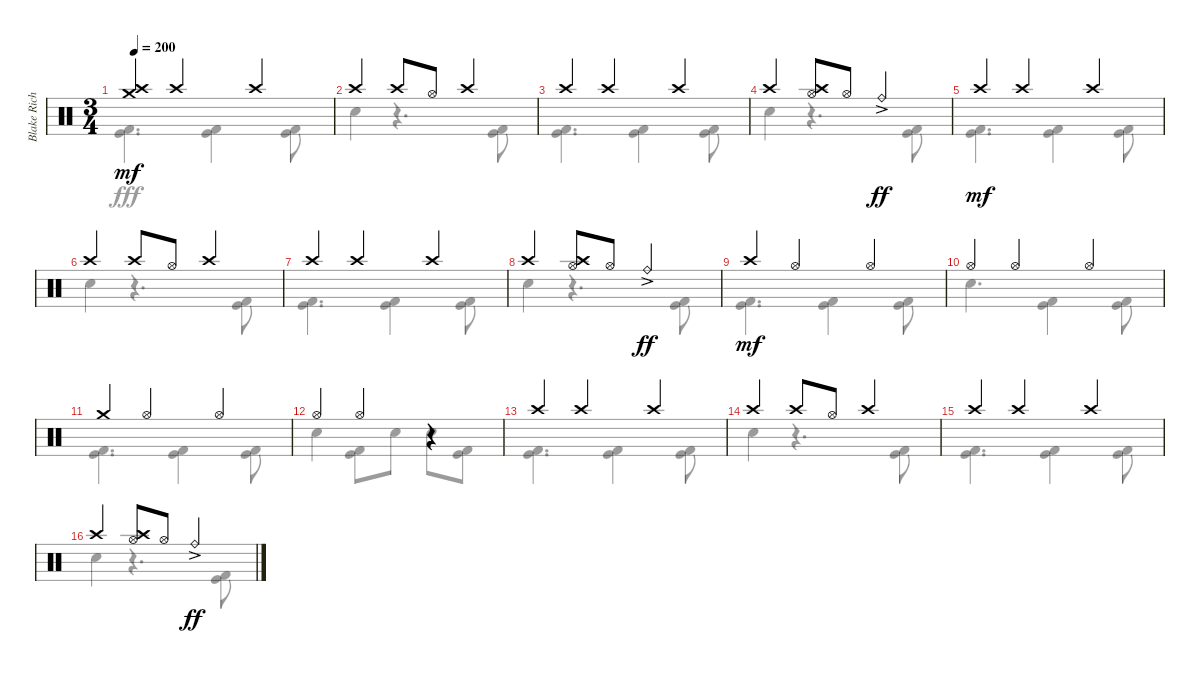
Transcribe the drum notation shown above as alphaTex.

\track ("Blake Richardson Drums" "Blake Rich") {instrument percussion}
\staff {score}
\articulation defaults
\voice
\ts (3 4)
\tempo 200
\clef neutral
\ks c
("Crash high (hit)" "Crash medium (hit)").4{dy mf} "Crash high (hit)".4 "Crash high (hit)".4 |
"Crash high (hit)".4 "Crash high (hit)".8 "Hi-Hat (open)".8 "Crash high (hit)".4 |
"Crash high (hit)".4 "Crash high (hit)".4 "Crash high (hit)".4 |
"Crash high (hit)".4 ("Crash high (hit)" "Hi-Hat (open)").8 "Hi-Hat (open)".8 "Ride (bell)"{ac}.4{dy ff} |
"Crash high (hit)".4{dy mf} "Crash high (hit)".4 "Crash high (hit)".4 |
"Crash high (hit)".4 "Crash high (hit)".8 "Hi-Hat (open)".8 "Crash high (hit)".4 |
"Crash high (hit)".4 "Crash high (hit)".4 "Crash high (hit)".4 |
"Crash high (hit)".4 ("Crash high (hit)" "Hi-Hat (open)").8 "Hi-Hat (open)".8 "Ride (bell)"{ac}.4{dy ff} |
"Crash high (hit)".4{dy mf} "Hi-Hat (open)".4 "Hi-Hat (open)".4 |
"Hi-Hat (open)".4 "Hi-Hat (open)".4 "Hi-Hat (open)".4 |
"Crash medium (hit)".4 "Hi-Hat (open)".4 "Hi-Hat (open)".4 |
"Hi-Hat (open)".4 "Hi-Hat (open)".4 r.4 |
"Crash high (hit)".4 "Crash high (hit)".4 "Crash high (hit)".4 |
"Crash high (hit)".4 "Crash high (hit)".8 "Hi-Hat (open)".8 "Crash high (hit)".4 |
"Crash high (hit)".4 "Crash high (hit)".4 "Crash high (hit)".4 |
"Crash high (hit)".4 ("Crash high (hit)" "Hi-Hat (open)").8 "Hi-Hat (open)".8 "Ride (bell)"{ac}.4{dy ff}
\voice
\clef neutral
\ottava regular
\simile none
\ks c
("Kick (hit)" "Kick (hit) 2").4{d dy fff} ("Kick (hit)" "Kick (hit) 2").4 ("Kick (hit)" "Kick (hit) 2").8 |
"Electric Snare (hit)".4 r.4{d} ("Kick (hit)" "Kick (hit) 2").8 |
("Kick (hit)" "Kick (hit) 2").4{d} ("Kick (hit)" "Kick (hit) 2").4 ("Kick (hit)" "Kick (hit) 2").8 |
"Electric Snare (hit)".4 r.4{d} ("Kick (hit)" "Kick (hit) 2").8 |
("Kick (hit)" "Kick (hit) 2").4{d} ("Kick (hit)" "Kick (hit) 2").4 ("Kick (hit)" "Kick (hit) 2").8 |
"Electric Snare (hit)".4 r.4{d} ("Kick (hit)" "Kick (hit) 2").8 |
("Kick (hit)" "Kick (hit) 2").4{d} ("Kick (hit)" "Kick (hit) 2").4 ("Kick (hit)" "Kick (hit) 2").8 |
"Electric Snare (hit)".4 r.4{d} ("Kick (hit)" "Kick (hit) 2").8 |
("Kick (hit)" "Kick (hit) 2").4{d} ("Kick (hit)" "Kick (hit) 2").4 ("Kick (hit)" "Kick (hit) 2").8 |
"Electric Snare (hit)".4{d} ("Kick (hit)" "Kick (hit) 2").4 ("Kick (hit)" "Kick (hit) 2").8 |
("Kick (hit)" "Kick (hit) 2").4{d} ("Kick (hit)" "Kick (hit) 2").4 ("Kick (hit)" "Kick (hit) 2").8 |
"Electric Snare (hit)".4 ("Kick (hit)" "Kick (hit) 2").8 "Electric Snare (hit)".8 "Electric Snare (hit)".8 ("Kick (hit)" "Kick (hit) 2").8 |
("Kick (hit)" "Kick (hit) 2").4{d} ("Kick (hit)" "Kick (hit) 2").4 ("Kick (hit)" "Kick (hit) 2").8 |
"Electric Snare (hit)".4 r.4{d} ("Kick (hit)" "Kick (hit) 2").8 |
("Kick (hit)" "Kick (hit) 2").4{d} ("Kick (hit)" "Kick (hit) 2").4 ("Kick (hit)" "Kick (hit) 2").8 |
"Electric Snare (hit)".4 r.4{d} ("Kick (hit)" "Kick (hit) 2").8
